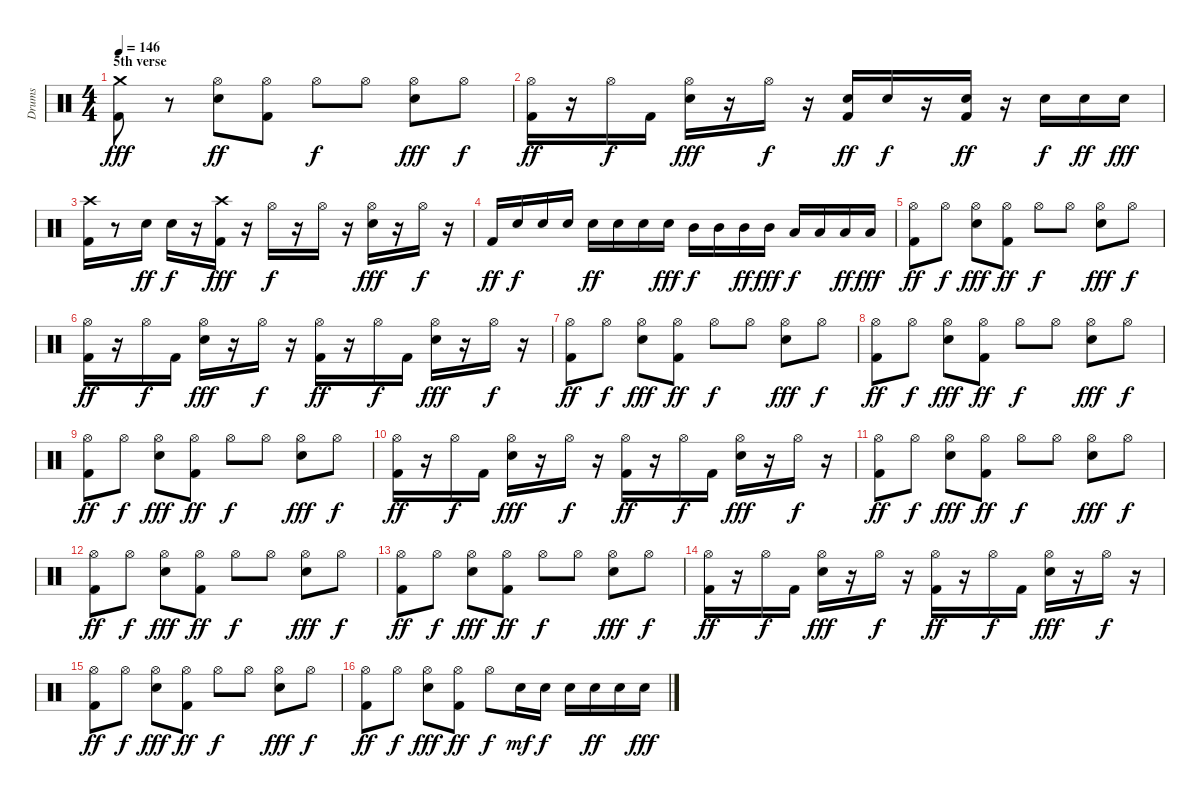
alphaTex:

\track ("Drums" "Drums") {instrument percussion}
\staff {score}
\articulation defaults
\ts (4 4)
\section ("" "5th verse")
\tempo 146
\clef neutral
\ks c
("Kick (hit) 2" "Crash medium (hit)").8{dy fff} r.8 ("Hi-Hat (open)" "Snare (hit) 2").8{dy ff} ("Hi-Hat (open)" "Kick (hit) 2").8 "Hi-Hat (open)".8{dy f} "Hi-Hat (open)".8 ("Snare (hit) 2" "Hi-Hat (open)").8{dy fff} "Hi-Hat (open)".8{dy f} |
("Kick (hit) 2" "Hi-Hat (open)").16{dy ff} r.16 "Hi-Hat (open)".16{dy f} "Kick (hit) 2".16 ("Snare (hit) 2" "Hi-Hat (open)").16{dy fff} r.16 "Hi-Hat (open)".16{dy f} r.16 ("Snare (hit) 2" "Kick (hit) 2").16{dy ff} "Snare (hit) 2".16{dy f} r.16 ("Snare (hit) 2" "Kick (hit) 2").16{dy ff} r.16 "Snare (hit) 2".16{dy f} "Snare (hit) 2".16{dy ff} "Snare (hit) 2".16{dy fff} |
("Kick (hit) 2" "Crash high (hit)").16 r.8 "Snare (hit) 2".16{dy ff} "Snare (hit) 2".16{dy f} r.16 ("Kick (hit) 2" "Crash high (hit)").16{dy fff} r.16 "Hi-Hat (open)".16{dy f} r.16 "Hi-Hat (open)".16 r.16 ("Snare (hit) 2" "Hi-Hat (open)").16{dy fff} r.16 "Hi-Hat (open)".16{dy f} r.16 |
"Kick (hit) 2".16{dy ff} "Snare (hit) 2".16{dy f} "Snare (hit) 2".16 "Snare (hit) 2".16 "Snare (hit) 2".16{dy ff} "Snare (hit) 2".16 "Snare (hit) 2".16 "Snare (hit) 2".16{dy fff} "Mid Tom (hit)".16{dy f} "Mid Tom (hit)".16 "Mid Tom (hit)".16{dy ff} "Mid Tom (hit)".16{dy fff} "Low Tom (hit)".16{dy f} "Low Tom (hit)".16 "Low Tom (hit)".16{dy ff} "Low Tom (hit)".16{dy fff} |
("Kick (hit) 2" "Hi-Hat (open)").8{dy ff} "Hi-Hat (open)".8{dy f} ("Snare (hit) 2" "Hi-Hat (open)").8{dy fff} ("Kick (hit) 2" "Hi-Hat (open)").8{dy ff} "Hi-Hat (open)".8{dy f} "Hi-Hat (open)".8 ("Snare (hit) 2" "Hi-Hat (open)").8{dy fff} "Hi-Hat (open)".8{dy f} |
("Kick (hit) 2" "Hi-Hat (open)").16{dy ff} r.16 "Hi-Hat (open)".16{dy f} "Kick (hit) 2".16 ("Snare (hit) 2" "Hi-Hat (open)").16{dy fff} r.16 "Hi-Hat (open)".16{dy f} r.16 ("Kick (hit) 2" "Hi-Hat (open)").16{dy ff} r.16 "Hi-Hat (open)".16{dy f} "Kick (hit) 2".16 ("Snare (hit) 2" "Hi-Hat (open)").16{dy fff} r.16 "Hi-Hat (open)".16{dy f} r.16 |
("Kick (hit) 2" "Hi-Hat (open)").8{dy ff} "Hi-Hat (open)".8{dy f} ("Snare (hit) 2" "Hi-Hat (open)").8{dy fff} ("Kick (hit) 2" "Hi-Hat (open)").8{dy ff} "Hi-Hat (open)".8{dy f} "Hi-Hat (open)".8 ("Snare (hit) 2" "Hi-Hat (open)").8{dy fff} "Hi-Hat (open)".8{dy f} |
("Kick (hit) 2" "Hi-Hat (open)").8{dy ff} "Hi-Hat (open)".8{dy f} ("Snare (hit) 2" "Hi-Hat (open)").8{dy fff} ("Kick (hit) 2" "Hi-Hat (open)").8{dy ff} "Hi-Hat (open)".8{dy f} "Hi-Hat (open)".8 ("Snare (hit) 2" "Hi-Hat (open)").8{dy fff} "Hi-Hat (open)".8{dy f} |
("Kick (hit) 2" "Hi-Hat (open)").8{dy ff} "Hi-Hat (open)".8{dy f} ("Snare (hit) 2" "Hi-Hat (open)").8{dy fff} ("Kick (hit) 2" "Hi-Hat (open)").8{dy ff} "Hi-Hat (open)".8{dy f} "Hi-Hat (open)".8 ("Snare (hit) 2" "Hi-Hat (open)").8{dy fff} "Hi-Hat (open)".8{dy f} |
("Kick (hit) 2" "Hi-Hat (open)").16{dy ff} r.16 "Hi-Hat (open)".16{dy f} "Kick (hit) 2".16 ("Snare (hit) 2" "Hi-Hat (open)").16{dy fff} r.16 "Hi-Hat (open)".16{dy f} r.16 ("Kick (hit) 2" "Hi-Hat (open)").16{dy ff} r.16 "Hi-Hat (open)".16{dy f} "Kick (hit) 2".16 ("Snare (hit) 2" "Hi-Hat (open)").16{dy fff} r.16 "Hi-Hat (open)".16{dy f} r.16 |
("Kick (hit) 2" "Hi-Hat (open)").8{dy ff} "Hi-Hat (open)".8{dy f} ("Snare (hit) 2" "Hi-Hat (open)").8{dy fff} ("Kick (hit) 2" "Hi-Hat (open)").8{dy ff} "Hi-Hat (open)".8{dy f} "Hi-Hat (open)".8 ("Snare (hit) 2" "Hi-Hat (open)").8{dy fff} "Hi-Hat (open)".8{dy f} |
("Kick (hit) 2" "Hi-Hat (open)").8{dy ff} "Hi-Hat (open)".8{dy f} ("Snare (hit) 2" "Hi-Hat (open)").8{dy fff} ("Kick (hit) 2" "Hi-Hat (open)").8{dy ff} "Hi-Hat (open)".8{dy f} "Hi-Hat (open)".8 ("Snare (hit) 2" "Hi-Hat (open)").8{dy fff} "Hi-Hat (open)".8{dy f} |
("Kick (hit) 2" "Hi-Hat (open)").8{dy ff} "Hi-Hat (open)".8{dy f} ("Snare (hit) 2" "Hi-Hat (open)").8{dy fff} ("Kick (hit) 2" "Hi-Hat (open)").8{dy ff} "Hi-Hat (open)".8{dy f} "Hi-Hat (open)".8 ("Snare (hit) 2" "Hi-Hat (open)").8{dy fff} "Hi-Hat (open)".8{dy f} |
("Kick (hit) 2" "Hi-Hat (open)").16{dy ff} r.16 "Hi-Hat (open)".16{dy f} "Kick (hit) 2".16 ("Snare (hit) 2" "Hi-Hat (open)").16{dy fff} r.16 "Hi-Hat (open)".16{dy f} r.16 ("Kick (hit) 2" "Hi-Hat (open)").16{dy ff} r.16 "Hi-Hat (open)".16{dy f} "Kick (hit) 2".16 ("Snare (hit) 2" "Hi-Hat (open)").16{dy fff} r.16 "Hi-Hat (open)".16{dy f} r.16 |
("Kick (hit) 2" "Hi-Hat (open)").8{dy ff} "Hi-Hat (open)".8{dy f} ("Snare (hit) 2" "Hi-Hat (open)").8{dy fff} ("Kick (hit) 2" "Hi-Hat (open)").8{dy ff} "Hi-Hat (open)".8{dy f} "Hi-Hat (open)".8 ("Snare (hit) 2" "Hi-Hat (open)").8{dy fff} "Hi-Hat (open)".8{dy f} |
("Kick (hit) 2" "Hi-Hat (open)").8{dy ff} "Hi-Hat (open)".8{dy f} ("Snare (hit) 2" "Hi-Hat (open)").8{dy fff} ("Kick (hit) 2" "Hi-Hat (open)").8{dy ff} "Hi-Hat (open)".8{dy f} "Snare (hit) 2".16{dy mf} "Snare (hit) 2".16{dy f} "Snare (hit) 2".16 "Snare (hit) 2".16{dy ff} "Snare (hit) 2".16 "Snare (hit) 2".16{dy fff}
